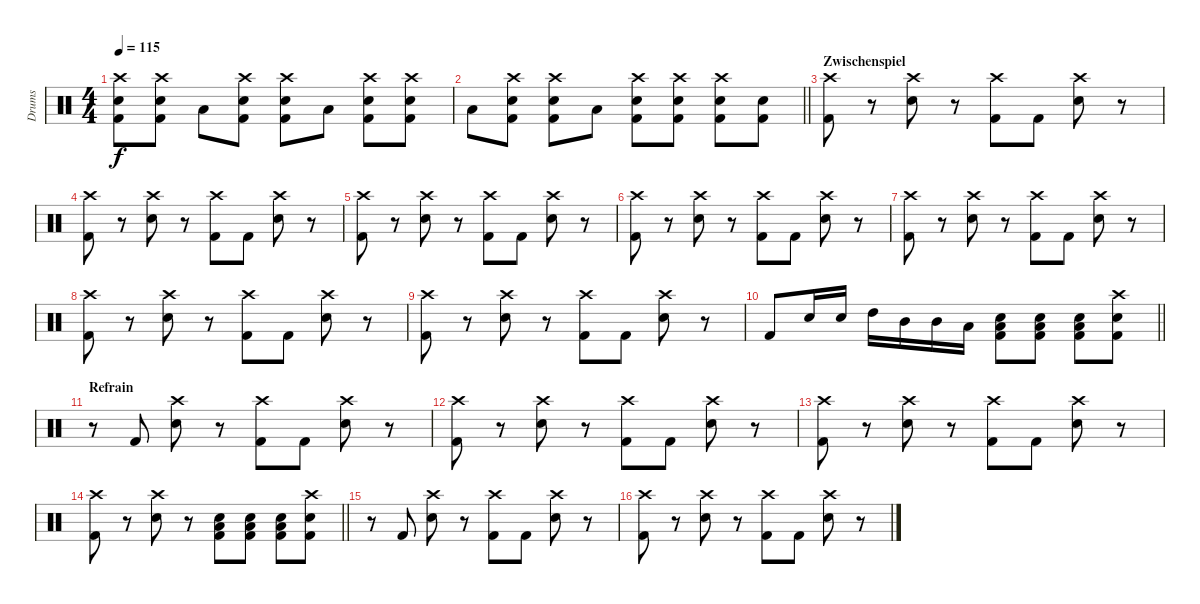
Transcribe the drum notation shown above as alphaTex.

\track ("Drums" "Drums") {instrument percussion}
\staff {score}
\articulation defaults
\ts (4 4)
\tempo 115
\clef neutral
\ks c
("Crash high (hit)" "Snare (hit) 2" "Kick (hit) 2").8{dy f} ("Crash high (hit)" "Snare (hit) 2" "Kick (hit) 2").8 "Low Tom (hit)".8 ("Crash high (hit)" "Snare (hit) 2" "Kick (hit) 2").8 ("Crash high (hit)" "Snare (hit) 2" "Kick (hit) 2").8 "Low Tom (hit)".8 ("Crash high (hit)" "Snare (hit) 2" "Kick (hit) 2").8 ("Crash high (hit)" "Snare (hit) 2" "Kick (hit) 2").8 |
\barLineRight lightlight "Low Tom (hit)".8
("Crash high (hit)" "Snare (hit) 2" "Kick (hit) 2").8 ("Crash high (hit)" "Snare (hit) 2" "Kick (hit) 2").8 "Low Tom (hit)".8 ("Crash high (hit)" "Snare (hit) 2" "Kick (hit) 2").8 ("Crash high (hit)" "Snare (hit) 2" "Kick (hit) 2").8 ("Crash high (hit)" "Snare (hit) 2" "Kick (hit) 2").8 ("Snare (hit) 2" "Kick (hit) 2").8 |
\section ("" "Zwischenspiel")
("Crash high (hit)" "Kick (hit) 2").8 r.8 ("Crash high (hit)" "Snare (hit) 2").8 r.8 ("Crash high (hit)" "Kick (hit) 2").8 "Kick (hit) 2".8 ("Crash high (hit)" "Snare (hit) 2").8 r.8 |
("Crash high (hit)" "Kick (hit) 2").8 r.8 ("Crash high (hit)" "Snare (hit) 2").8 r.8 ("Crash high (hit)" "Kick (hit) 2").8 "Kick (hit) 2".8 ("Crash high (hit)" "Snare (hit) 2").8 r.8 |
("Crash high (hit)" "Kick (hit) 2").8 r.8 ("Crash high (hit)" "Snare (hit) 2").8 r.8 ("Crash high (hit)" "Kick (hit) 2").8 "Kick (hit) 2".8 ("Crash high (hit)" "Snare (hit) 2").8 r.8 |
("Crash high (hit)" "Kick (hit) 2").8 r.8 ("Crash high (hit)" "Snare (hit) 2").8 r.8 ("Crash high (hit)" "Kick (hit) 2").8 "Kick (hit) 2".8 ("Crash high (hit)" "Snare (hit) 2").8 r.8 |
("Crash high (hit)" "Kick (hit) 2").8 r.8 ("Crash high (hit)" "Snare (hit) 2").8 r.8 ("Crash high (hit)" "Kick (hit) 2").8 "Kick (hit) 2".8 ("Crash high (hit)" "Snare (hit) 2").8 r.8 |
("Crash high (hit)" "Kick (hit) 2").8 r.8 ("Crash high (hit)" "Snare (hit) 2").8 r.8 ("Crash high (hit)" "Kick (hit) 2").8 "Kick (hit) 2".8 ("Crash high (hit)" "Snare (hit) 2").8 r.8 |
("Crash high (hit)" "Kick (hit) 2").8 r.8 ("Crash high (hit)" "Snare (hit) 2").8 r.8 ("Crash high (hit)" "Kick (hit) 2").8 "Kick (hit) 2".8 ("Crash high (hit)" "Snare (hit) 2").8 r.8 |
\barLineRight lightlight "Kick (hit) 2".8 "Snare (hit) 2".16 "Snare (hit) 2".16 "High Tom (hit)".16 "Mid Tom (hit)".16 "Mid Tom (hit)".16 "Low Tom (hit)".16
("Snare (hit) 2" "Low Tom (hit)" "Kick (hit) 2").8 ("Snare (hit) 2" "Low Tom (hit)" "Kick (hit) 2").8 ("Snare (hit) 2" "Low Tom (hit)" "Kick (hit) 2").8 ("Crash high (hit)" "Snare (hit) 2" "Kick (hit) 2").8 |
\section ("" "Refrain")
r.8 "Kick (hit) 2".8 ("Crash high (hit)" "Snare (hit) 2").8 r.8 ("Crash high (hit)" "Kick (hit) 2").8 "Kick (hit) 2".8 ("Crash high (hit)" "Snare (hit) 2").8 r.8 |
("Crash high (hit)" "Kick (hit) 2").8 r.8 ("Crash high (hit)" "Snare (hit) 2").8 r.8 ("Crash high (hit)" "Kick (hit) 2").8 "Kick (hit) 2".8 ("Crash high (hit)" "Snare (hit) 2").8 r.8 |
("Crash high (hit)" "Kick (hit) 2").8 r.8 ("Crash high (hit)" "Snare (hit) 2").8 r.8 ("Crash high (hit)" "Kick (hit) 2").8 "Kick (hit) 2".8 ("Crash high (hit)" "Snare (hit) 2").8 r.8 |
\barLineRight lightlight
("Crash high (hit)" "Kick (hit) 2").8 r.8 ("Crash high (hit)" "Snare (hit) 2").8 r.8 ("Snare (hit) 2" "Low Tom (hit)" "Kick (hit) 2").8 ("Snare (hit) 2" "Low Tom (hit)" "Kick (hit) 2").8 ("Snare (hit) 2" "Low Tom (hit)" "Kick (hit) 2").8 ("Crash high (hit)" "Snare (hit) 2" "Kick (hit) 2").8 |
r.8 "Kick (hit) 2".8 ("Crash high (hit)" "Snare (hit) 2").8 r.8 ("Crash high (hit)" "Kick (hit) 2").8 "Kick (hit) 2".8 ("Crash high (hit)" "Snare (hit) 2").8 r.8 |
("Crash high (hit)" "Kick (hit) 2").8 r.8 ("Crash high (hit)" "Snare (hit) 2").8 r.8 ("Crash high (hit)" "Kick (hit) 2").8 "Kick (hit) 2".8 ("Crash high (hit)" "Snare (hit) 2").8 r.8
